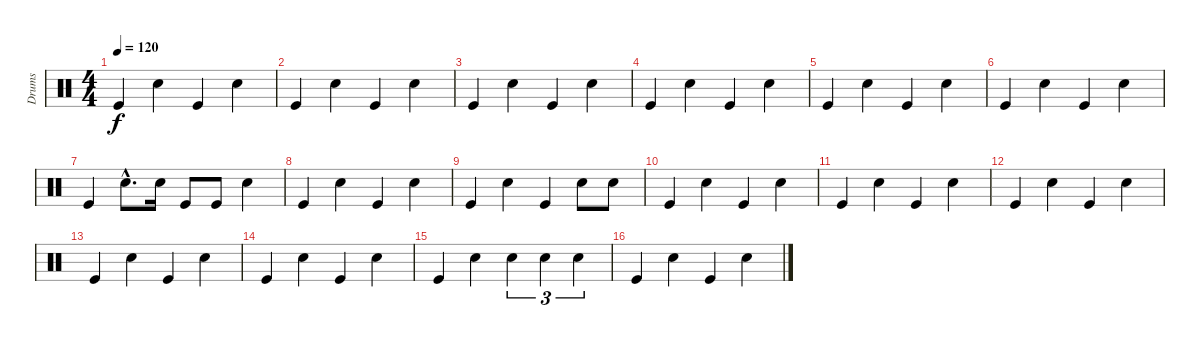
\track ("Drums" "Drums") {instrument percussion}
\staff {score}
\articulation defaults
\ts (4 4)
\tempo 120
\clef neutral
\ks c "Kick (hit)".4{dy f} "Snare (hit) 2".4 "Kick (hit)".4 "Snare (hit) 2".4
|
"Kick (hit)".4 "Snare (hit) 2".4 "Kick (hit)".4 "Snare (hit) 2".4 |
"Kick (hit)".4 "Snare (hit) 2".4 "Kick (hit)".4 "Snare (hit) 2".4 |
"Kick (hit)".4 "Snare (hit) 2".4 "Kick (hit)".4 "Snare (hit) 2".4 |
"Kick (hit)".4 "Snare (hit) 2".4 "Kick (hit)".4 "Snare (hit) 2".4 |
"Kick (hit)".4 "Snare (hit) 2".4 "Kick (hit)".4 "Snare (hit) 2".4 |
"Kick (hit)".4 "Snare (hit) 2"{hac}.8{d} "Snare (hit) 2".16 "Kick (hit)".8 "Kick (hit)".8 "Snare (hit) 2".4 |
"Kick (hit)".4 "Snare (hit) 2".4 "Kick (hit)".4 "Snare (hit) 2".4 |
"Kick (hit)".4 "Snare (hit) 2".4 "Kick (hit)".4 "Snare (hit) 2".8 "Snare (hit) 2".8 |
"Kick (hit)".4 "Snare (hit) 2".4 "Kick (hit)".4 "Snare (hit) 2".4 |
"Kick (hit)".4 "Snare (hit) 2".4 "Kick (hit)".4 "Snare (hit) 2".4 |
"Kick (hit)".4 "Snare (hit) 2".4 "Kick (hit)".4 "Snare (hit) 2".4 |
"Kick (hit)".4 "Snare (hit) 2".4 "Kick (hit)".4 "Snare (hit) 2".4 |
"Kick (hit)".4 "Snare (hit) 2".4 "Kick (hit)".4 "Snare (hit) 2".4 |
"Kick (hit)".4 "Snare (hit) 2".4 "Snare (hit) 2".4{tu (3 2)} "Snare (hit) 2".4{tu (3 2)} "Snare (hit) 2".4{tu (3 2)} |
"Kick (hit)".4 "Snare (hit) 2".4 "Kick (hit)".4 "Snare (hit) 2".4
